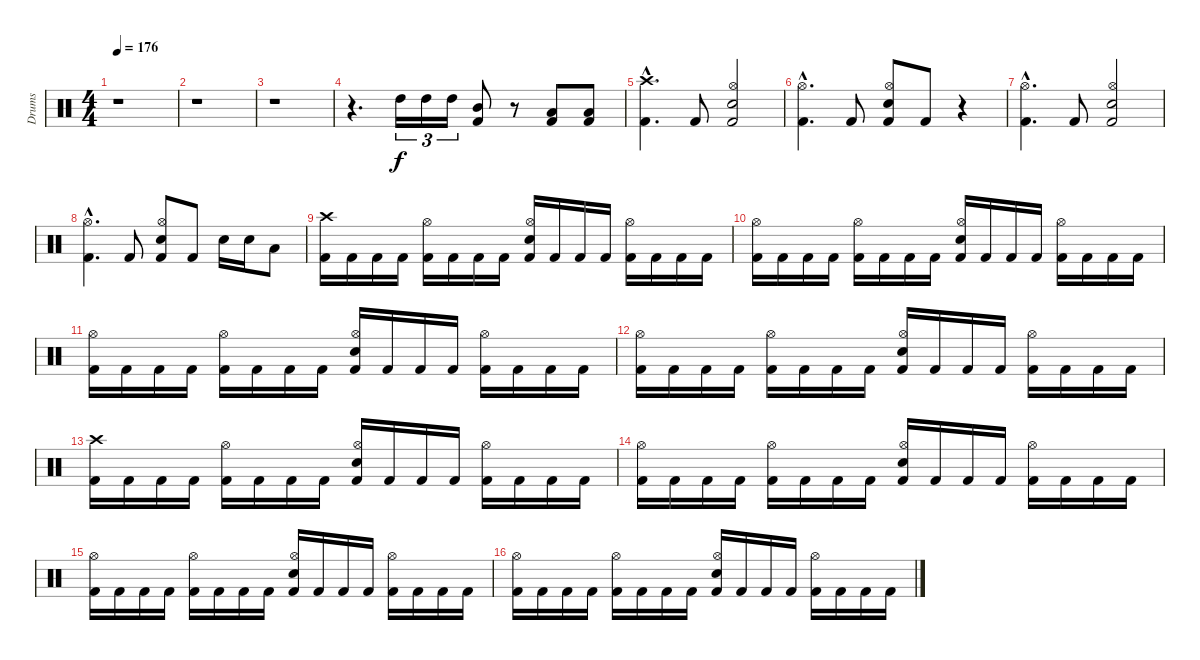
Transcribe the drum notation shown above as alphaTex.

\track ("Drums" "Drums") {instrument percussion}
\staff {score}
\articulation defaults
\ts (4 4)
\tempo 176
\clef neutral
\ks c
r.1{dy f} |
r.1 |
r.1 |
r.4{d} "High Tom (hit)".16{tu (3 2)} "High Tom (hit)".16{tu (3 2)} "High Tom (hit)".16{tu (3 2)} ("Mid Tom (hit)" "Kick (hit) 2").8 r.8 ("Low Tom (hit)" "Kick (hit) 2").8 ("Low Tom (hit)" "Kick (hit) 2").8 |
("Crash high (hit)"{hac} "Kick (hit) 2"{hac}).4{d} "Kick (hit) 2".8 ("Hi-Hat (open)" "Electric Snare (hit)" "Kick (hit) 2").2 |
("Hi-Hat (open)"{hac} "Kick (hit) 2"{hac}).4{d} "Kick (hit) 2".8 ("Hi-Hat (open)" "Electric Snare (hit)" "Kick (hit) 2").8 "Kick (hit) 2".8 r.4 |
("Hi-Hat (open)"{hac} "Kick (hit) 2"{hac}).4{d} "Kick (hit) 2".8 ("Hi-Hat (open)" "Electric Snare (hit)" "Kick (hit) 2").2 |
("Hi-Hat (open)"{hac} "Kick (hit) 2"{hac}).4{d} "Kick (hit) 2".8 ("Hi-Hat (open)" "Electric Snare (hit)" "Kick (hit) 2").8 "Kick (hit) 2".8 "Electric Snare (hit)".16 "Electric Snare (hit)".16 "Low Tom (hit)".8 |
("Crash high (hit)" "Kick (hit) 2").16 "Kick (hit) 2".16 "Kick (hit) 2".16 "Kick (hit) 2".16 ("Hi-Hat (open)" "Kick (hit) 2").16 "Kick (hit) 2".16 "Kick (hit) 2".16 "Kick (hit) 2".16 ("Hi-Hat (open)" "Electric Snare (hit)" "Kick (hit) 2").16 "Kick (hit) 2".16 "Kick (hit) 2".16 "Kick (hit) 2".16 ("Hi-Hat (open)" "Kick (hit) 2").16 "Kick (hit) 2".16 "Kick (hit) 2".16 "Kick (hit) 2".16 |
("Hi-Hat (open)" "Kick (hit) 2").16 "Kick (hit) 2".16 "Kick (hit) 2".16 "Kick (hit) 2".16 ("Hi-Hat (open)" "Kick (hit) 2").16 "Kick (hit) 2".16 "Kick (hit) 2".16 "Kick (hit) 2".16 ("Hi-Hat (open)" "Electric Snare (hit)" "Kick (hit) 2").16 "Kick (hit) 2".16 "Kick (hit) 2".16 "Kick (hit) 2".16 ("Hi-Hat (open)" "Kick (hit) 2").16 "Kick (hit) 2".16 "Kick (hit) 2".16 "Kick (hit) 2".16 |
("Hi-Hat (open)" "Kick (hit) 2").16 "Kick (hit) 2".16 "Kick (hit) 2".16 "Kick (hit) 2".16 ("Hi-Hat (open)" "Kick (hit) 2").16 "Kick (hit) 2".16 "Kick (hit) 2".16 "Kick (hit) 2".16 ("Hi-Hat (open)" "Electric Snare (hit)" "Kick (hit) 2").16 "Kick (hit) 2".16 "Kick (hit) 2".16 "Kick (hit) 2".16 ("Hi-Hat (open)" "Kick (hit) 2").16 "Kick (hit) 2".16 "Kick (hit) 2".16 "Kick (hit) 2".16 |
("Hi-Hat (open)" "Kick (hit) 2").16 "Kick (hit) 2".16 "Kick (hit) 2".16 "Kick (hit) 2".16 ("Hi-Hat (open)" "Kick (hit) 2").16 "Kick (hit) 2".16 "Kick (hit) 2".16 "Kick (hit) 2".16 ("Hi-Hat (open)" "Electric Snare (hit)" "Kick (hit) 2").16 "Kick (hit) 2".16 "Kick (hit) 2".16 "Kick (hit) 2".16 ("Hi-Hat (open)" "Kick (hit) 2").16 "Kick (hit) 2".16 "Kick (hit) 2".16 "Kick (hit) 2".16 |
("Crash high (hit)" "Kick (hit) 2").16 "Kick (hit) 2".16 "Kick (hit) 2".16 "Kick (hit) 2".16 ("Hi-Hat (open)" "Kick (hit) 2").16 "Kick (hit) 2".16 "Kick (hit) 2".16 "Kick (hit) 2".16 ("Hi-Hat (open)" "Electric Snare (hit)" "Kick (hit) 2").16 "Kick (hit) 2".16 "Kick (hit) 2".16 "Kick (hit) 2".16 ("Hi-Hat (open)" "Kick (hit) 2").16 "Kick (hit) 2".16 "Kick (hit) 2".16 "Kick (hit) 2".16 |
("Hi-Hat (open)" "Kick (hit) 2").16 "Kick (hit) 2".16 "Kick (hit) 2".16 "Kick (hit) 2".16 ("Hi-Hat (open)" "Kick (hit) 2").16 "Kick (hit) 2".16 "Kick (hit) 2".16 "Kick (hit) 2".16 ("Hi-Hat (open)" "Electric Snare (hit)" "Kick (hit) 2").16 "Kick (hit) 2".16 "Kick (hit) 2".16 "Kick (hit) 2".16 ("Hi-Hat (open)" "Kick (hit) 2").16 "Kick (hit) 2".16 "Kick (hit) 2".16 "Kick (hit) 2".16 |
("Hi-Hat (open)" "Kick (hit) 2").16 "Kick (hit) 2".16 "Kick (hit) 2".16 "Kick (hit) 2".16 ("Hi-Hat (open)" "Kick (hit) 2").16 "Kick (hit) 2".16 "Kick (hit) 2".16 "Kick (hit) 2".16 ("Hi-Hat (open)" "Electric Snare (hit)" "Kick (hit) 2").16 "Kick (hit) 2".16 "Kick (hit) 2".16 "Kick (hit) 2".16 ("Hi-Hat (open)" "Kick (hit) 2").16 "Kick (hit) 2".16 "Kick (hit) 2".16 "Kick (hit) 2".16 |
("Hi-Hat (open)" "Kick (hit) 2").16 "Kick (hit) 2".16 "Kick (hit) 2".16 "Kick (hit) 2".16 ("Hi-Hat (open)" "Kick (hit) 2").16 "Kick (hit) 2".16 "Kick (hit) 2".16 "Kick (hit) 2".16 ("Hi-Hat (open)" "Electric Snare (hit)" "Kick (hit) 2").16 "Kick (hit) 2".16 "Kick (hit) 2".16 "Kick (hit) 2".16 ("Hi-Hat (open)" "Kick (hit) 2").16 "Kick (hit) 2".16 "Kick (hit) 2".16 "Kick (hit) 2".16
